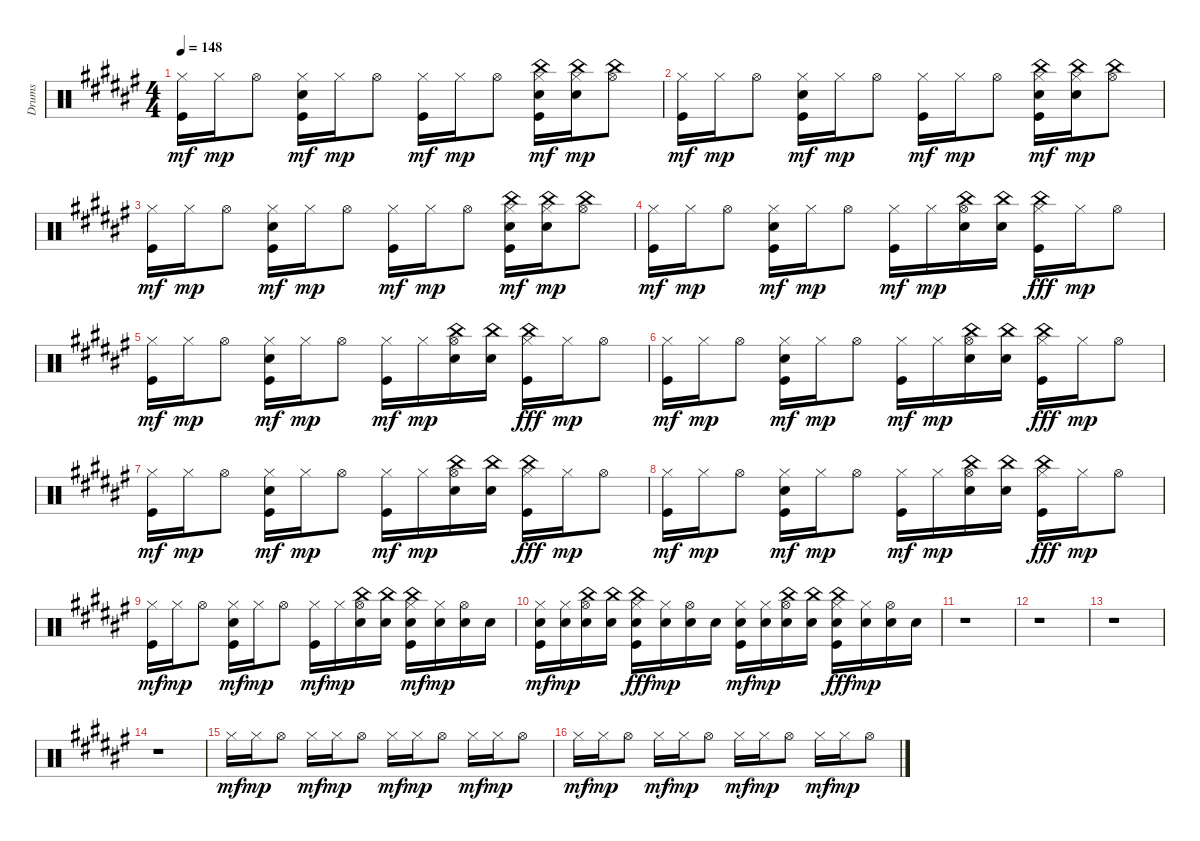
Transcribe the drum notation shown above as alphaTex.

\track ("Drums" "Drums") {instrument percussion}
\staff {score}
\articulation defaults
\ts (4 4)
\tempo 148
\clef neutral
\ks d#minor
("Kick (hit)" "Hi-Hat (closed)").16{dy mf} "Hi-Hat (closed)".16{dy mp} "Hi-Hat (open)".8 ("Electric Snare (hit)" "Kick (hit)" "Hi-Hat (closed)").16{dy mf} "Hi-Hat (closed)".16{dy mp} "Hi-Hat (open)".8 ("Kick (hit)" "Hi-Hat (closed)").16{dy mf} "Hi-Hat (closed)".16{dy mp} "Hi-Hat (open)".8 ("Kick (hit)" "Hi-Hat (closed)" "China (hit)" "Snare (hit) 2").16{dy mf} ("China (hit)" "Hi-Hat (closed)" "Snare (hit) 2").16{dy mp} ("China (hit)" "Hi-Hat (open)").8 |
("Kick (hit)" "Hi-Hat (closed)").16{dy mf} "Hi-Hat (closed)".16{dy mp} "Hi-Hat (open)".8 ("Electric Snare (hit)" "Kick (hit)" "Hi-Hat (closed)").16{dy mf} "Hi-Hat (closed)".16{dy mp} "Hi-Hat (open)".8 ("Kick (hit)" "Hi-Hat (closed)").16{dy mf} "Hi-Hat (closed)".16{dy mp} "Hi-Hat (open)".8 ("Kick (hit)" "China (hit)" "Hi-Hat (closed)" "Snare (hit) 2").16{dy mf} ("China (hit)" "Hi-Hat (closed)" "Snare (hit) 2").16{dy mp} ("China (hit)" "Hi-Hat (open)").8 |
("Kick (hit)" "Hi-Hat (closed)").16{dy mf} "Hi-Hat (closed)".16{dy mp} "Hi-Hat (open)".8 ("Electric Snare (hit)" "Kick (hit)" "Hi-Hat (closed)").16{dy mf} "Hi-Hat (closed)".16{dy mp} "Hi-Hat (open)".8 ("Kick (hit)" "Hi-Hat (closed)").16{dy mf} "Hi-Hat (closed)".16{dy mp} "Hi-Hat (open)".8 ("Kick (hit)" "China (hit)" "Hi-Hat (closed)" "Snare (hit) 2").16{dy mf} ("China (hit)" "Hi-Hat (closed)" "Snare (hit) 2").16{dy mp} ("China (hit)" "Hi-Hat (open)").8 |
("Kick (hit)" "Hi-Hat (closed)").16{dy mf} "Hi-Hat (closed)".16{dy mp} "Hi-Hat (open)".8 ("Electric Snare (hit)" "Kick (hit)" "Hi-Hat (closed)").16{dy mf} "Hi-Hat (closed)".16{dy mp} "Hi-Hat (open)".8 ("Kick (hit)" "Hi-Hat (closed)").16{dy mf} "Hi-Hat (closed)".16{dy mp} ("Snare (hit) 2" "China (hit)" "Hi-Hat (open)").16 ("Snare (hit) 2" "China (hit)").16 ("Kick (hit)" "Hi-Hat (closed)" "China (hit)").16{dy fff} "Hi-Hat (closed)".16{dy mp} "Hi-Hat (open)".8 |
("Kick (hit)" "Hi-Hat (closed)").16{dy mf} "Hi-Hat (closed)".16{dy mp} "Hi-Hat (open)".8 ("Electric Snare (hit)" "Kick (hit)" "Hi-Hat (closed)").16{dy mf} "Hi-Hat (closed)".16{dy mp} "Hi-Hat (open)".8 ("Kick (hit)" "Hi-Hat (closed)").16{dy mf} "Hi-Hat (closed)".16{dy mp} ("Snare (hit) 2" "China (hit)" "Hi-Hat (open)").16 ("Snare (hit) 2" "China (hit)").16 ("Kick (hit)" "Hi-Hat (closed)" "China (hit)").16{dy fff} "Hi-Hat (closed)".16{dy mp} "Hi-Hat (open)".8 |
("Kick (hit)" "Hi-Hat (closed)").16{dy mf} "Hi-Hat (closed)".16{dy mp} "Hi-Hat (open)".8 ("Electric Snare (hit)" "Kick (hit)" "Hi-Hat (closed)").16{dy mf} "Hi-Hat (closed)".16{dy mp} "Hi-Hat (open)".8 ("Kick (hit)" "Hi-Hat (closed)").16{dy mf} "Hi-Hat (closed)".16{dy mp} ("Snare (hit) 2" "China (hit)" "Hi-Hat (open)").16 ("Snare (hit) 2" "China (hit)").16 ("Kick (hit)" "Hi-Hat (closed)" "China (hit)").16{dy fff} "Hi-Hat (closed)".16{dy mp} "Hi-Hat (open)".8 |
("Kick (hit)" "Hi-Hat (closed)").16{dy mf} "Hi-Hat (closed)".16{dy mp} "Hi-Hat (open)".8 ("Electric Snare (hit)" "Kick (hit)" "Hi-Hat (closed)").16{dy mf} "Hi-Hat (closed)".16{dy mp} "Hi-Hat (open)".8 ("Kick (hit)" "Hi-Hat (closed)").16{dy mf} "Hi-Hat (closed)".16{dy mp} ("Snare (hit) 2" "China (hit)" "Hi-Hat (open)").16 ("Snare (hit) 2" "China (hit)").16 ("Kick (hit)" "Hi-Hat (closed)" "China (hit)").16{dy fff} "Hi-Hat (closed)".16{dy mp} "Hi-Hat (open)".8 |
("Kick (hit)" "Hi-Hat (closed)").16{dy mf} "Hi-Hat (closed)".16{dy mp} "Hi-Hat (open)".8 ("Electric Snare (hit)" "Kick (hit)" "Hi-Hat (closed)").16{dy mf} "Hi-Hat (closed)".16{dy mp} "Hi-Hat (open)".8 ("Kick (hit)" "Hi-Hat (closed)").16{dy mf} "Hi-Hat (closed)".16{dy mp} ("Snare (hit) 2" "China (hit)" "Hi-Hat (open)").16 ("Snare (hit) 2" "China (hit)").16 ("Kick (hit)" "Hi-Hat (closed)" "China (hit)").16{dy fff} "Hi-Hat (closed)".16{dy mp} "Hi-Hat (open)".8 |
("Kick (hit)" "Hi-Hat (closed)").16{dy mf} "Hi-Hat (closed)".16{dy mp} "Hi-Hat (open)".8 ("Electric Snare (hit)" "Kick (hit)" "Hi-Hat (closed)").16{dy mf} "Hi-Hat (closed)".16{dy mp} "Hi-Hat (open)".8 ("Kick (hit)" "Hi-Hat (closed)").16{dy mf} "Hi-Hat (closed)".16{dy mp} ("China (hit)" "Snare (hit) 2" "Hi-Hat (open)").16 ("China (hit)" "Snare (hit) 2").16 ("Kick (hit)" "Hi-Hat (closed)" "China (hit)" "Snare (hit) 2").16{dy mf} ("Snare (hit) 2" "Hi-Hat (closed)").16{dy mp} ("Snare (hit) 2" "Hi-Hat (open)").16 "Snare (hit) 2".16 |
("Kick (hit)" "Snare (hit) 2" "Hi-Hat (closed)").16{dy mf} ("Snare (hit) 2" "Hi-Hat (closed)").16{dy mp} ("China (hit)" "Snare (hit) 2" "Hi-Hat (open)").16 ("China (hit)" "Snare (hit) 2").16 ("Kick (hit)" "Hi-Hat (closed)" "China (hit)" "Snare (hit) 2").16{dy fff} ("Snare (hit) 2" "Hi-Hat (closed)").16{dy mp} ("Snare (hit) 2" "Hi-Hat (open)").16 "Snare (hit) 2".16 ("Kick (hit)" "Hi-Hat (closed)" "Snare (hit) 2").16{dy mf} ("Snare (hit) 2" "Hi-Hat (closed)").16{dy mp} ("Snare (hit) 2" "China (hit)" "Hi-Hat (open)").16 ("Snare (hit) 2" "China (hit)").16 ("Kick (hit)" "Hi-Hat (closed)" "Snare (hit) 2" "China (hit)").16{dy fff} ("Snare (hit) 2" "Hi-Hat (closed)").16{dy mp} ("Snare (hit) 2" "Hi-Hat (open)").16 "Snare (hit) 2".16 |
r.1 |
r.1 |
r.1 |
r.1 |
"Hi-Hat (closed)".16{dy mf} "Hi-Hat (closed)".16{dy mp} "Hi-Hat (open)".8 "Hi-Hat (closed)".16{dy mf} "Hi-Hat (closed)".16{dy mp} "Hi-Hat (open)".8 "Hi-Hat (closed)".16{dy mf} "Hi-Hat (closed)".16{dy mp} "Hi-Hat (open)".8 "Hi-Hat (closed)".16{dy mf} "Hi-Hat (closed)".16{dy mp} "Hi-Hat (open)".8 |
"Hi-Hat (closed)".16{dy mf} "Hi-Hat (closed)".16{dy mp} "Hi-Hat (open)".8 "Hi-Hat (closed)".16{dy mf} "Hi-Hat (closed)".16{dy mp} "Hi-Hat (open)".8 "Hi-Hat (closed)".16{dy mf} "Hi-Hat (closed)".16{dy mp} "Hi-Hat (open)".8 "Hi-Hat (closed)".16{dy mf} "Hi-Hat (closed)".16{dy mp} "Hi-Hat (open)".8
